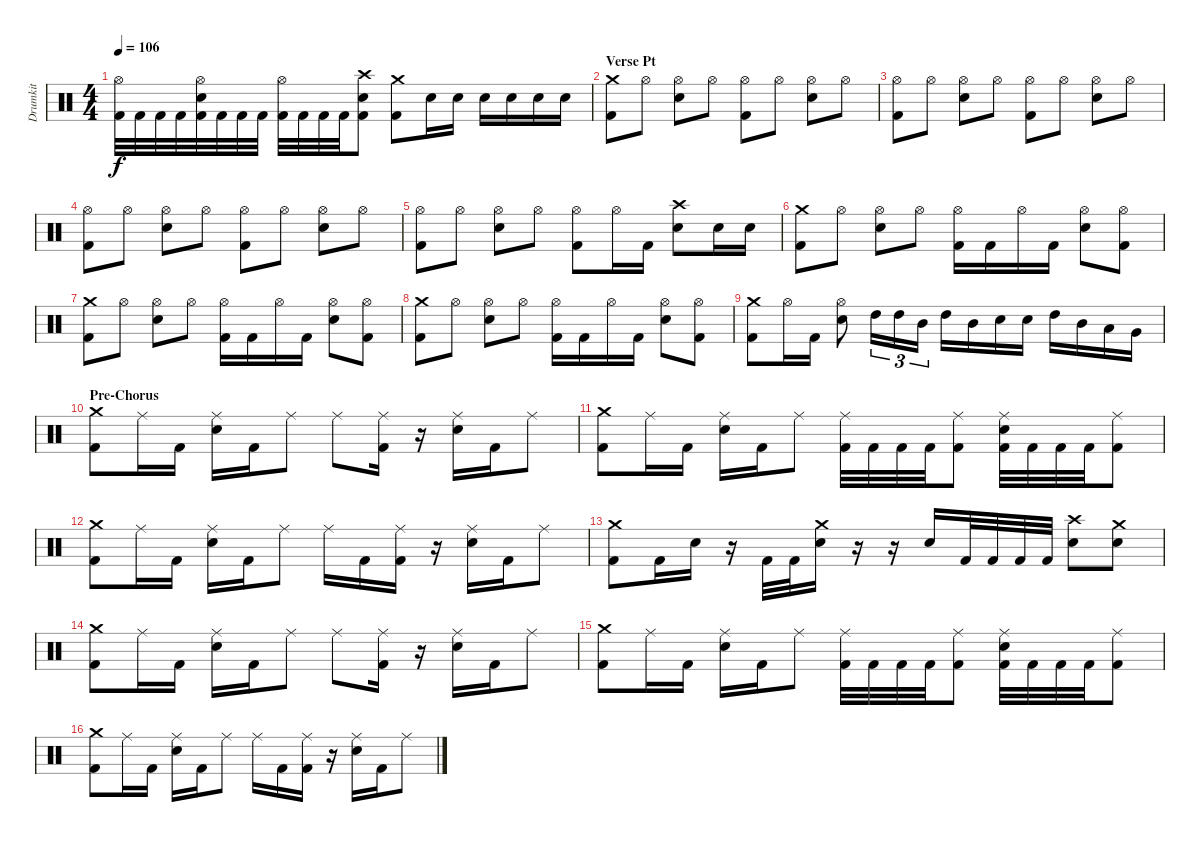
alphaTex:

\track ("Drumkit" "Drumkit") {instrument percussion}
\staff {score}
\articulation defaults
\ts (4 4)
\tempo 106
\clef neutral
\ks c
("Hi-Hat (open)" "Kick (hit) 2").32{dy f} "Kick (hit) 2".32 "Kick (hit) 2".32 "Kick (hit) 2".32 ("Hi-Hat (open)" "Snare (hit) 2" "Kick (hit) 2").32 "Kick (hit) 2".32 "Kick (hit) 2".32 "Kick (hit) 2".32 ("Hi-Hat (open)" "Kick (hit) 2").32 "Kick (hit) 2".32 "Kick (hit) 2".32 "Kick (hit) 2".32 ("Crash high (hit)" "Snare (hit) 2" "Kick (hit) 2").8 ("Crash medium (hit)" "Kick (hit) 2").8 "Snare (hit) 2".16 "Snare (hit) 2".16 "Snare (hit) 2".16 "Snare (hit) 2".16 "Snare (hit) 2".16 "Snare (hit) 2".16 |
\section ("" "Verse Pt")
("Crash medium (hit)" "Kick (hit) 2").8 "Hi-Hat (open)".8 ("Hi-Hat (open)" "Snare (hit) 2").8 "Hi-Hat (open)".8 ("Hi-Hat (open)" "Kick (hit) 2").8 "Hi-Hat (open)".8 ("Hi-Hat (open)" "Snare (hit) 2").8 "Hi-Hat (open)".8 |
("Hi-Hat (open)" "Kick (hit) 2").8 "Hi-Hat (open)".8 ("Hi-Hat (open)" "Snare (hit) 2").8 "Hi-Hat (open)".8 ("Hi-Hat (open)" "Kick (hit) 2").8 "Hi-Hat (open)".8 ("Hi-Hat (open)" "Snare (hit) 2").8 "Hi-Hat (open)".8 |
("Hi-Hat (open)" "Kick (hit) 2").8 "Hi-Hat (open)".8 ("Hi-Hat (open)" "Snare (hit) 2").8 "Hi-Hat (open)".8 ("Hi-Hat (open)" "Kick (hit) 2").8 "Hi-Hat (open)".8 ("Hi-Hat (open)" "Snare (hit) 2").8 "Hi-Hat (open)".8 |
("Hi-Hat (open)" "Kick (hit) 2").8 "Hi-Hat (open)".8 ("Hi-Hat (open)" "Snare (hit) 2").8 "Hi-Hat (open)".8 ("Hi-Hat (open)" "Kick (hit) 2").8 "Hi-Hat (open)".16 "Kick (hit) 2".16 ("Crash high (hit)" "Snare (hit) 2").8 "Snare (hit) 2".16 "Snare (hit) 2".16 |
("Crash medium (hit)" "Kick (hit) 2").8 "Hi-Hat (open)".8 ("Hi-Hat (open)" "Snare (hit) 2").8 "Hi-Hat (open)".8 ("Hi-Hat (open)" "Kick (hit) 2").16 "Kick (hit) 2".16 "Hi-Hat (open)".16 "Kick (hit) 2".16 ("Hi-Hat (open)" "Snare (hit) 2").8 ("Hi-Hat (open)" "Kick (hit) 2").8 |
("Crash medium (hit)" "Kick (hit) 2").8 "Hi-Hat (open)".8 ("Hi-Hat (open)" "Snare (hit) 2").8 "Hi-Hat (open)".8 ("Hi-Hat (open)" "Kick (hit) 2").16 "Kick (hit) 2".16 "Hi-Hat (open)".16 "Kick (hit) 2".16 ("Hi-Hat (open)" "Snare (hit) 2").8 ("Hi-Hat (open)" "Kick (hit) 2").8 |
("Crash medium (hit)" "Kick (hit) 2").8 "Hi-Hat (open)".8 ("Hi-Hat (open)" "Snare (hit) 2").8 "Hi-Hat (open)".8 ("Hi-Hat (open)" "Kick (hit) 2").16 "Kick (hit) 2".16 "Hi-Hat (open)".16 "Kick (hit) 2".16 ("Hi-Hat (open)" "Snare (hit) 2").8 ("Hi-Hat (open)" "Kick (hit) 2").8 |
("Crash medium (hit)" "Kick (hit) 2").8 "Hi-Hat (open)".16 "Kick (hit) 2".16 ("Hi-Hat (open)" "Snare (hit) 2").8 "High Tom (hit)".16{tu (3 2)} "High Tom (hit)".16{tu (3 2)} "Mid Tom (hit)".16{tu (3 2)} "High Tom (hit)".16 "Mid Tom (hit)".16 "Snare (hit) 2".16 "Snare (hit) 2".16 "High Tom (hit)".16 "Mid Tom (hit)".16 "Low Tom (hit)".16 "Very Low Tom (hit)".16 |
\section ("" "Pre-Chorus")
("Crash medium (hit)" "Kick (hit) 2").8 "Ride (middle)".16 "Kick (hit) 2".16 ("Ride (middle)" "Snare (hit) 2").16 "Kick (hit) 2".16 "Ride (middle)".8 "Ride (middle)".8 ("Ride (middle)" "Kick (hit) 2").16 r.16 ("Ride (middle)" "Snare (hit) 2").16 "Kick (hit) 2".16 "Ride (middle)".8 |
("Crash medium (hit)" "Kick (hit) 2").8 "Ride (middle)".16 "Kick (hit) 2".16 ("Ride (middle)" "Snare (hit) 2").16 "Kick (hit) 2".16 "Ride (middle)".8 ("Ride (middle)" "Kick (hit) 2").32 "Kick (hit) 2".32 "Kick (hit) 2".32 "Kick (hit) 2".32 ("Ride (middle)" "Kick (hit) 2").8 ("Ride (middle)" "Snare (hit) 2" "Kick (hit) 2").32 "Kick (hit) 2".32 "Kick (hit) 2".32 "Kick (hit) 2".32 ("Ride (middle)" "Kick (hit) 2").8 |
("Crash medium (hit)" "Kick (hit) 2").8 "Ride (middle)".16 "Kick (hit) 2".16 ("Ride (middle)" "Snare (hit) 2").16 "Kick (hit) 2".16 "Ride (middle)".8 "Ride (middle)".16 "Kick (hit) 2".16 ("Ride (middle)" "Kick (hit) 2").16 r.16 ("Ride (middle)" "Snare (hit) 2").16 "Kick (hit) 2".16 "Ride (middle)".8 |
("Crash medium (hit)" "Kick (hit) 2").8 "Kick (hit) 2".16 "Snare (hit) 2".16 r.16 "Kick (hit) 2".32 "Kick (hit) 2".32 ("Crash medium (hit)" "Snare (hit) 2").16 r.16 r.16 "Snare (hit) 2".16 "Kick (hit) 2".32 "Kick (hit) 2".32 "Kick (hit) 2".32 "Kick (hit) 2".32 ("Crash high (hit)" "Snare (hit) 2").8 ("Crash medium (hit)" "Snare (hit) 2").8 |
("Crash medium (hit)" "Kick (hit) 2").8 "Ride (middle)".16 "Kick (hit) 2".16 ("Ride (middle)" "Snare (hit) 2").16 "Kick (hit) 2".16 "Ride (middle)".8 "Ride (middle)".8 ("Ride (middle)" "Kick (hit) 2").16 r.16 ("Ride (middle)" "Snare (hit) 2").16 "Kick (hit) 2".16 "Ride (middle)".8 |
("Crash medium (hit)" "Kick (hit) 2").8 "Ride (middle)".16 "Kick (hit) 2".16 ("Ride (middle)" "Snare (hit) 2").16 "Kick (hit) 2".16 "Ride (middle)".8 ("Ride (middle)" "Kick (hit) 2").32 "Kick (hit) 2".32 "Kick (hit) 2".32 "Kick (hit) 2".32 ("Ride (middle)" "Kick (hit) 2").8 ("Ride (middle)" "Snare (hit) 2" "Kick (hit) 2").32 "Kick (hit) 2".32 "Kick (hit) 2".32 "Kick (hit) 2".32 ("Ride (middle)" "Kick (hit) 2").8 |
("Crash medium (hit)" "Kick (hit) 2").8 "Ride (middle)".16 "Kick (hit) 2".16 ("Ride (middle)" "Snare (hit) 2").16 "Kick (hit) 2".16 "Ride (middle)".8 "Ride (middle)".16 "Kick (hit) 2".16 ("Ride (middle)" "Kick (hit) 2").16 r.16 ("Ride (middle)" "Snare (hit) 2").16 "Kick (hit) 2".16 "Ride (middle)".8
